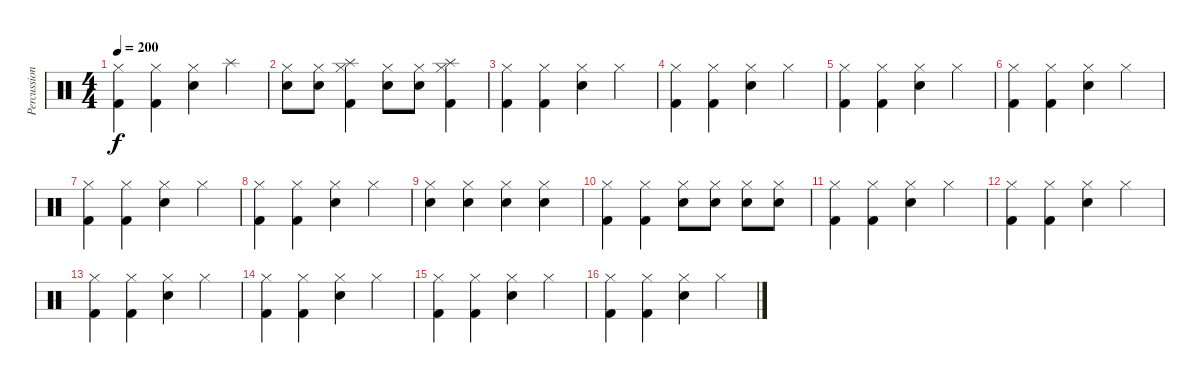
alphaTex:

\track ("Percussion" "Percussion") {instrument percussion}
\staff {score}
\articulation defaults
\ts (4 4)
\tempo 200
\clef neutral
\ks c
("Kick (hit) 2" "Hi-Hat (closed)").4{dy f} ("Kick (hit) 2" "Hi-Hat (closed)").4 ("Snare (hit) 2" "Hi-Hat (closed)").4 "Splash (hit)".4 |
("Snare (hit) 2" "Hi-Hat (closed)").8 ("Snare (hit) 2" "Hi-Hat (closed)").8 ("Kick (hit) 2" "Hi-Hat (closed)" "Splash (hit)").4 ("Snare (hit) 2" "Hi-Hat (closed)").8 ("Snare (hit) 2" "Hi-Hat (closed)").8 ("Kick (hit) 2" "Hi-Hat (closed)" "Splash (hit)").4 |
("Kick (hit) 2" "Hi-Hat (closed)").4 ("Kick (hit) 2" "Hi-Hat (closed)").4 ("Snare (hit) 2" "Hi-Hat (closed)").4 "Hi-Hat (closed)".4 |
("Kick (hit) 2" "Hi-Hat (closed)").4 ("Kick (hit) 2" "Hi-Hat (closed)").4 ("Snare (hit) 2" "Hi-Hat (closed)").4 "Hi-Hat (closed)".4 |
("Kick (hit) 2" "Hi-Hat (closed)").4 ("Kick (hit) 2" "Hi-Hat (closed)").4 ("Snare (hit) 2" "Hi-Hat (closed)").4 "Hi-Hat (closed)".4 |
("Kick (hit) 2" "Hi-Hat (closed)").4 ("Kick (hit) 2" "Hi-Hat (closed)").4 ("Snare (hit) 2" "Hi-Hat (closed)").4 "Hi-Hat (closed)".4 |
("Kick (hit) 2" "Hi-Hat (closed)").4 ("Kick (hit) 2" "Hi-Hat (closed)").4 ("Snare (hit) 2" "Hi-Hat (closed)").4 "Hi-Hat (closed)".4 |
("Kick (hit) 2" "Hi-Hat (closed)").4 ("Kick (hit) 2" "Hi-Hat (closed)").4 ("Snare (hit) 2" "Hi-Hat (closed)").4 "Hi-Hat (closed)".4 |
("Snare (hit) 2" "Hi-Hat (closed)").4 ("Snare (hit) 2" "Hi-Hat (closed)").4 ("Snare (hit) 2" "Hi-Hat (closed)").4 ("Snare (hit) 2" "Hi-Hat (closed)").4 |
("Kick (hit) 2" "Hi-Hat (closed)").4 ("Kick (hit) 2" "Hi-Hat (closed)").4 ("Snare (hit) 2" "Hi-Hat (closed)").8 ("Snare (hit) 2" "Hi-Hat (closed)").8 ("Snare (hit) 2" "Hi-Hat (closed)").8 ("Snare (hit) 2" "Hi-Hat (closed)").8 |
("Kick (hit) 2" "Hi-Hat (closed)").4 ("Kick (hit) 2" "Hi-Hat (closed)").4 ("Snare (hit) 2" "Hi-Hat (closed)").4 "Hi-Hat (closed)".4 |
("Kick (hit) 2" "Hi-Hat (closed)").4 ("Kick (hit) 2" "Hi-Hat (closed)").4 ("Snare (hit) 2" "Hi-Hat (closed)").4 "Hi-Hat (closed)".4 |
("Kick (hit) 2" "Hi-Hat (closed)").4 ("Kick (hit) 2" "Hi-Hat (closed)").4 ("Snare (hit) 2" "Hi-Hat (closed)").4 "Hi-Hat (closed)".4 |
("Kick (hit) 2" "Hi-Hat (closed)").4 ("Kick (hit) 2" "Hi-Hat (closed)").4 ("Snare (hit) 2" "Hi-Hat (closed)").4 "Hi-Hat (closed)".4 |
("Kick (hit) 2" "Hi-Hat (closed)").4 ("Kick (hit) 2" "Hi-Hat (closed)").4 ("Snare (hit) 2" "Hi-Hat (closed)").4 "Hi-Hat (closed)".4 |
("Kick (hit) 2" "Hi-Hat (closed)").4 ("Kick (hit) 2" "Hi-Hat (closed)").4 ("Snare (hit) 2" "Hi-Hat (closed)").4 "Hi-Hat (closed)".4
